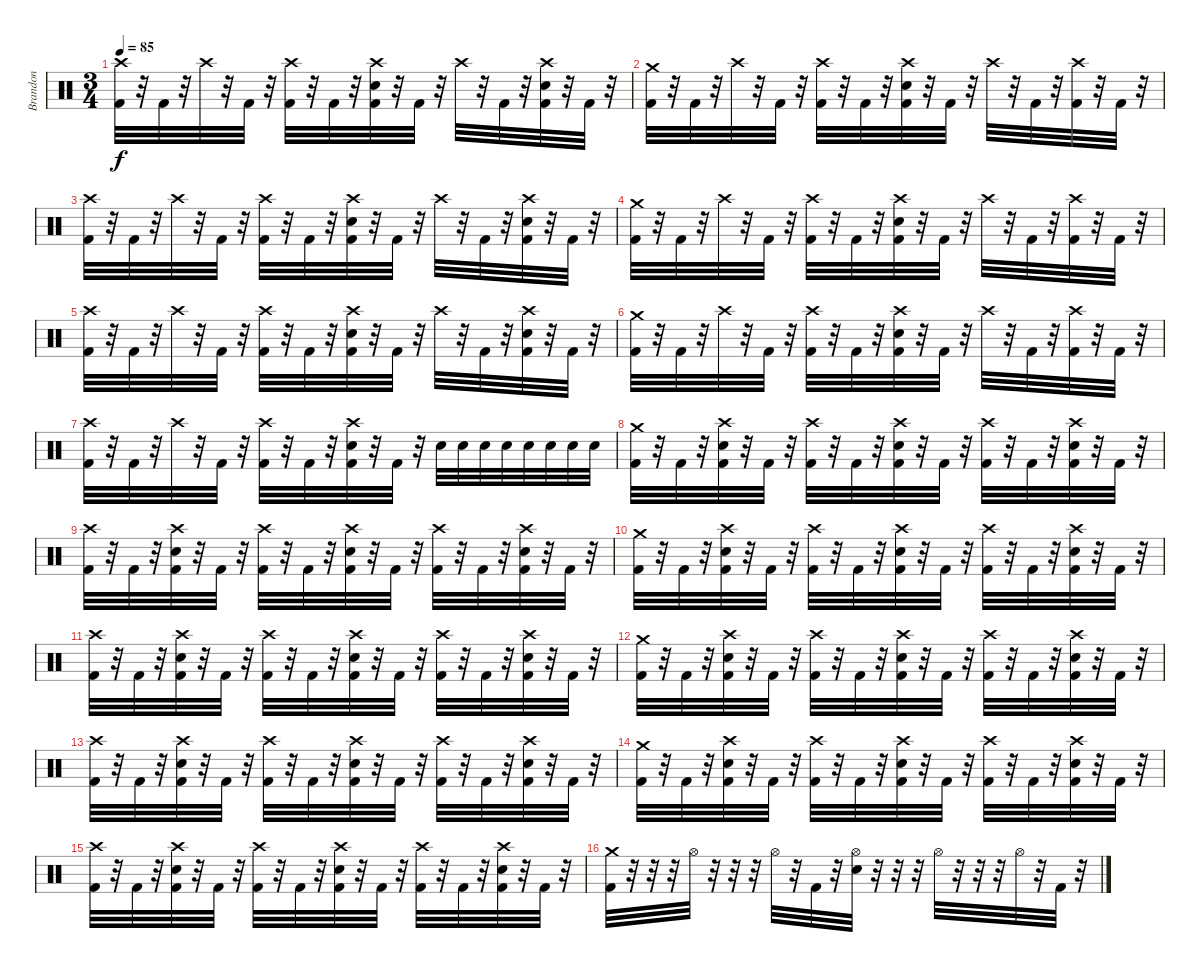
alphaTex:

\track ("Brandon" "Brandon") {instrument percussion}
\staff {score}
\articulation defaults
\ts (3 4)
\tempo 85
\clef neutral
\ks c
("Crash high (hit)" "Kick (hit) 2").32{dy f} r.32 "Kick (hit) 2".32 r.32 "Crash high (hit)".32 r.32 "Kick (hit) 2".32 r.32 ("Crash high (hit)" "Kick (hit) 2").32 r.32 "Kick (hit) 2".32 r.32 ("Crash high (hit)" "Electric Snare (hit)" "Kick (hit) 2").32 r.32 "Kick (hit) 2".32 r.32 "Crash high (hit)".32 r.32 "Kick (hit) 2".32 r.32 ("Crash high (hit)" "Electric Snare (hit)" "Kick (hit) 2").32 r.32 "Kick (hit) 2".32 r.32 |
("Crash medium (hit)" "Kick (hit) 2").32 r.32 "Kick (hit) 2".32 r.32 "Crash high (hit)".32 r.32 "Kick (hit) 2".32 r.32 ("Crash high (hit)" "Kick (hit) 2").32 r.32 "Kick (hit) 2".32 r.32 ("Crash high (hit)" "Electric Snare (hit)" "Kick (hit) 2").32 r.32 "Kick (hit) 2".32 r.32 "Crash high (hit)".32 r.32 "Kick (hit) 2".32 r.32 ("Crash high (hit)" "Kick (hit) 2").32 r.32 "Kick (hit) 2".32 r.32 |
("Crash high (hit)" "Kick (hit) 2").32 r.32 "Kick (hit) 2".32 r.32 "Crash high (hit)".32 r.32 "Kick (hit) 2".32 r.32 ("Crash high (hit)" "Kick (hit) 2").32 r.32 "Kick (hit) 2".32 r.32 ("Crash high (hit)" "Electric Snare (hit)" "Kick (hit) 2").32 r.32 "Kick (hit) 2".32 r.32 "Crash high (hit)".32 r.32 "Kick (hit) 2".32 r.32 ("Crash high (hit)" "Electric Snare (hit)" "Kick (hit) 2").32 r.32 "Kick (hit) 2".32 r.32 |
("Crash medium (hit)" "Kick (hit) 2").32 r.32 "Kick (hit) 2".32 r.32 "Crash high (hit)".32 r.32 "Kick (hit) 2".32 r.32 ("Crash high (hit)" "Kick (hit) 2").32 r.32 "Kick (hit) 2".32 r.32 ("Crash high (hit)" "Electric Snare (hit)" "Kick (hit) 2").32 r.32 "Kick (hit) 2".32 r.32 "Crash high (hit)".32 r.32 "Kick (hit) 2".32 r.32 ("Crash high (hit)" "Kick (hit) 2").32 r.32 "Kick (hit) 2".32 r.32 |
("Crash high (hit)" "Kick (hit) 2").32 r.32 "Kick (hit) 2".32 r.32 "Crash high (hit)".32 r.32 "Kick (hit) 2".32 r.32 ("Crash high (hit)" "Kick (hit) 2").32 r.32 "Kick (hit) 2".32 r.32 ("Crash high (hit)" "Electric Snare (hit)" "Kick (hit) 2").32 r.32 "Kick (hit) 2".32 r.32 "Crash high (hit)".32 r.32 "Kick (hit) 2".32 r.32 ("Crash high (hit)" "Electric Snare (hit)" "Kick (hit) 2").32 r.32 "Kick (hit) 2".32 r.32 |
("Crash medium (hit)" "Kick (hit) 2").32 r.32 "Kick (hit) 2".32 r.32 "Crash high (hit)".32 r.32 "Kick (hit) 2".32 r.32 ("Crash high (hit)" "Kick (hit) 2").32 r.32 "Kick (hit) 2".32 r.32 ("Crash high (hit)" "Electric Snare (hit)" "Kick (hit) 2").32 r.32 "Kick (hit) 2".32 r.32 "Crash high (hit)".32 r.32 "Kick (hit) 2".32 r.32 ("Crash high (hit)" "Kick (hit) 2").32 r.32 "Kick (hit) 2".32 r.32 |
("Crash high (hit)" "Kick (hit) 2").32 r.32 "Kick (hit) 2".32 r.32 "Crash high (hit)".32 r.32 "Kick (hit) 2".32 r.32 ("Crash high (hit)" "Kick (hit) 2").32 r.32 "Kick (hit) 2".32 r.32 ("Crash high (hit)" "Electric Snare (hit)" "Kick (hit) 2").32 r.32 "Kick (hit) 2".32 r.32 "Electric Snare (hit)".32 "Electric Snare (hit)".32 "Electric Snare (hit)".32 "Electric Snare (hit)".32 "Electric Snare (hit)".32 "Electric Snare (hit)".32 "Electric Snare (hit)".32 "Electric Snare (hit)".32 |
("Crash medium (hit)" "Kick (hit) 2").32 r.32 "Kick (hit) 2".32 r.32 ("Crash high (hit)" "Electric Snare (hit)" "Kick (hit) 2").32 r.32 "Kick (hit) 2".32 r.32 ("Crash high (hit)" "Kick (hit) 2").32 r.32 "Kick (hit) 2".32 r.32 ("Crash high (hit)" "Electric Snare (hit)" "Kick (hit) 2").32 r.32 "Kick (hit) 2".32 r.32 ("Crash high (hit)" "Kick (hit) 2").32 r.32 "Kick (hit) 2".32 r.32 ("Crash high (hit)" "Electric Snare (hit)" "Kick (hit) 2").32 r.32 "Kick (hit) 2".32 r.32 |
("Crash high (hit)" "Kick (hit) 2").32 r.32 "Kick (hit) 2".32 r.32 ("Crash high (hit)" "Electric Snare (hit)" "Kick (hit) 2").32 r.32 "Kick (hit) 2".32 r.32 ("Crash high (hit)" "Kick (hit) 2").32 r.32 "Kick (hit) 2".32 r.32 ("Crash high (hit)" "Electric Snare (hit)" "Kick (hit) 2").32 r.32 "Kick (hit) 2".32 r.32 ("Crash high (hit)" "Kick (hit) 2").32 r.32 "Kick (hit) 2".32 r.32 ("Crash high (hit)" "Electric Snare (hit)" "Kick (hit) 2").32 r.32 "Kick (hit) 2".32 r.32 |
("Crash medium (hit)" "Kick (hit) 2").32 r.32 "Kick (hit) 2".32 r.32 ("Crash high (hit)" "Electric Snare (hit)" "Kick (hit) 2").32 r.32 "Kick (hit) 2".32 r.32 ("Crash high (hit)" "Kick (hit) 2").32 r.32 "Kick (hit) 2".32 r.32 ("Crash high (hit)" "Electric Snare (hit)" "Kick (hit) 2").32 r.32 "Kick (hit) 2".32 r.32 ("Crash high (hit)" "Kick (hit) 2").32 r.32 "Kick (hit) 2".32 r.32 ("Crash high (hit)" "Electric Snare (hit)" "Kick (hit) 2").32 r.32 "Kick (hit) 2".32 r.32 |
("Crash high (hit)" "Kick (hit) 2").32 r.32 "Kick (hit) 2".32 r.32 ("Crash high (hit)" "Electric Snare (hit)" "Kick (hit) 2").32 r.32 "Kick (hit) 2".32 r.32 ("Crash high (hit)" "Kick (hit) 2").32 r.32 "Kick (hit) 2".32 r.32 ("Crash high (hit)" "Electric Snare (hit)" "Kick (hit) 2").32 r.32 "Kick (hit) 2".32 r.32 ("Crash high (hit)" "Kick (hit) 2").32 r.32 "Kick (hit) 2".32 r.32 ("Crash high (hit)" "Electric Snare (hit)" "Kick (hit) 2").32 r.32 "Kick (hit) 2".32 r.32 |
("Crash medium (hit)" "Kick (hit) 2").32 r.32 "Kick (hit) 2".32 r.32 ("Crash high (hit)" "Electric Snare (hit)" "Kick (hit) 2").32 r.32 "Kick (hit) 2".32 r.32 ("Crash high (hit)" "Kick (hit) 2").32 r.32 "Kick (hit) 2".32 r.32 ("Crash high (hit)" "Electric Snare (hit)" "Kick (hit) 2").32 r.32 "Kick (hit) 2".32 r.32 ("Crash high (hit)" "Kick (hit) 2").32 r.32 "Kick (hit) 2".32 r.32 ("Crash high (hit)" "Electric Snare (hit)" "Kick (hit) 2").32 r.32 "Kick (hit) 2".32 r.32 |
("Crash high (hit)" "Kick (hit) 2").32 r.32 "Kick (hit) 2".32 r.32 ("Crash high (hit)" "Electric Snare (hit)" "Kick (hit) 2").32 r.32 "Kick (hit) 2".32 r.32 ("Crash high (hit)" "Kick (hit) 2").32 r.32 "Kick (hit) 2".32 r.32 ("Crash high (hit)" "Electric Snare (hit)" "Kick (hit) 2").32 r.32 "Kick (hit) 2".32 r.32 ("Crash high (hit)" "Kick (hit) 2").32 r.32 "Kick (hit) 2".32 r.32 ("Crash high (hit)" "Electric Snare (hit)" "Kick (hit) 2").32 r.32 "Kick (hit) 2".32 r.32 |
("Crash medium (hit)" "Kick (hit) 2").32 r.32 "Kick (hit) 2".32 r.32 ("Crash high (hit)" "Electric Snare (hit)" "Kick (hit) 2").32 r.32 "Kick (hit) 2".32 r.32 ("Crash high (hit)" "Kick (hit) 2").32 r.32 "Kick (hit) 2".32 r.32 ("Crash high (hit)" "Electric Snare (hit)" "Kick (hit) 2").32 r.32 "Kick (hit) 2".32 r.32 ("Crash high (hit)" "Kick (hit) 2").32 r.32 "Kick (hit) 2".32 r.32 ("Crash high (hit)" "Electric Snare (hit)" "Kick (hit) 2").32 r.32 "Kick (hit) 2".32 r.32 |
("Crash high (hit)" "Kick (hit) 2").32 r.32 "Kick (hit) 2".32 r.32 ("Crash high (hit)" "Electric Snare (hit)" "Kick (hit) 2").32 r.32 "Kick (hit) 2".32 r.32 ("Crash high (hit)" "Kick (hit) 2").32 r.32 "Kick (hit) 2".32 r.32 ("Crash high (hit)" "Electric Snare (hit)" "Kick (hit) 2").32 r.32 "Kick (hit) 2".32 r.32 ("Crash high (hit)" "Kick (hit) 2").32 r.32 "Kick (hit) 2".32 r.32 ("Crash high (hit)" "Electric Snare (hit)" "Kick (hit) 2").32 r.32 "Kick (hit) 2".32 r.32 |
("Crash medium (hit)" "Kick (hit) 2").32 r.32 r.32 r.32 "Hi-Hat (open)".32 r.32 r.32 r.32 "Hi-Hat (open)".32 r.32 "Kick (hit) 2".32 r.32 ("Hi-Hat (open)" "Electric Snare (hit)").32 r.32 r.32 r.32 "Hi-Hat (open)".32 r.32 r.32 r.32 "Hi-Hat (open)".32 r.32 "Kick (hit) 2".32 r.32
